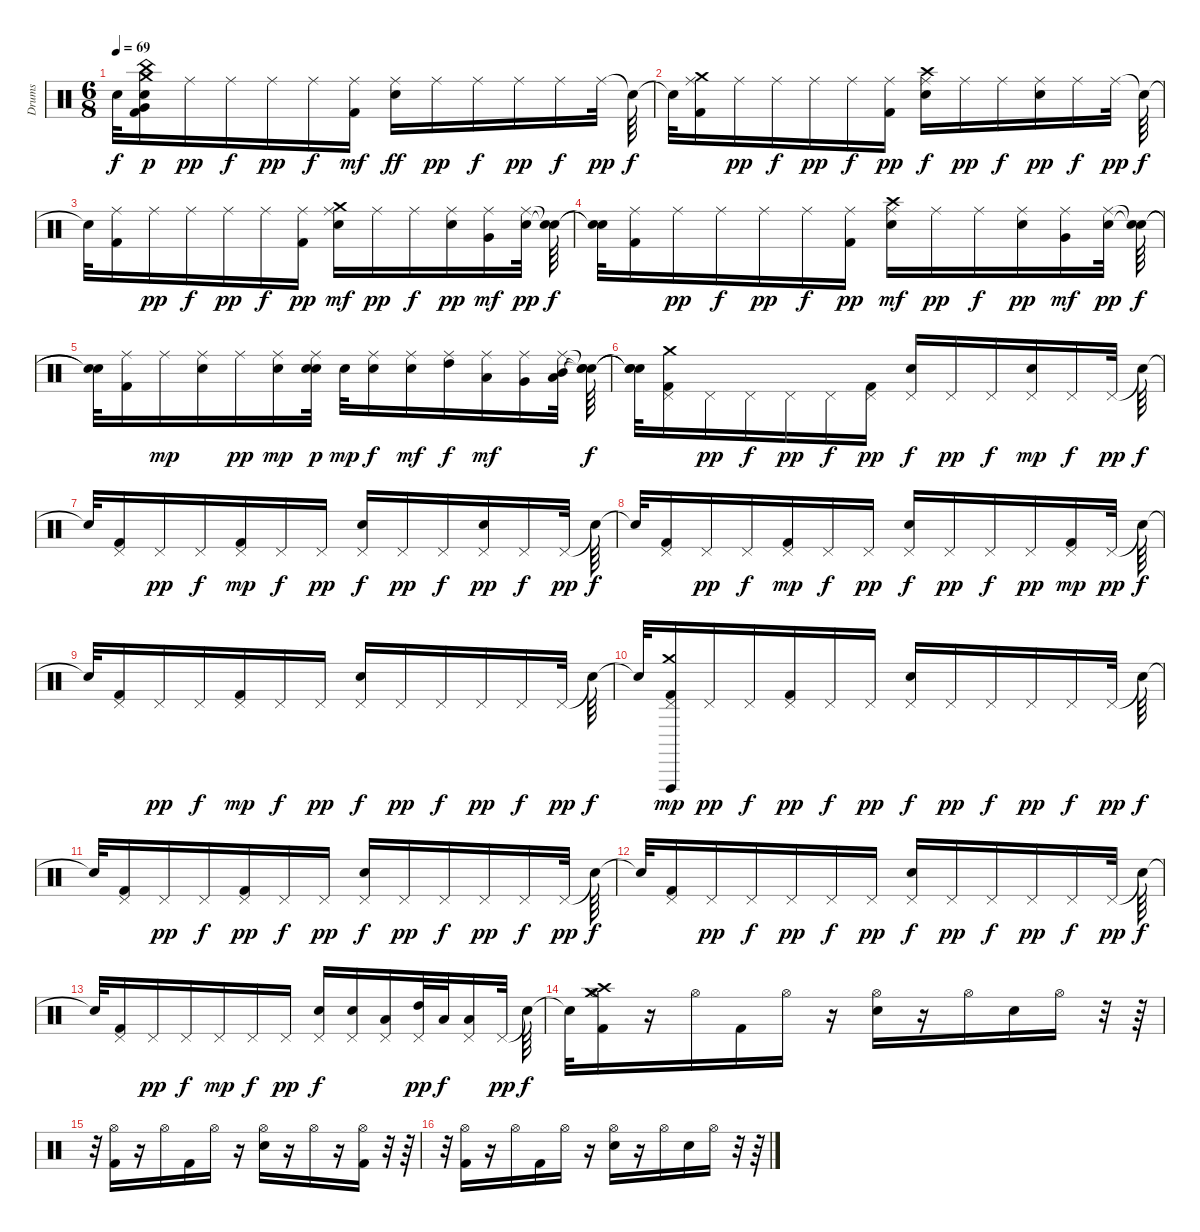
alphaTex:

\track ("Drums" "Drums") {instrument percussion}
\staff {score}
\articulation defaults
\ts (6 8)
\tempo 69
\clef neutral
\ks c "Snare (hit)"{t}.32{dy f}
("China (hit)" "Crash medium (hit)" "Kick (hit) 2" "Snare (hit) 2" "Very Low Tom (hit)").16{dy p} "Ride (middle)".16{dy pp} "Ride (middle)".16{dy f} "Ride (middle)".16{dy pp} "Ride (middle)".16{dy f} ("Kick (hit) 2" "Ride (middle)").16{dy mf} ("Snare (hit) 2" "Ride (middle)").16{dy ff} "Ride (middle)".16{dy pp} "Ride (middle)".16{dy f} "Ride (middle)".16{dy pp} "Ride (middle)".16{dy f} "Ride (middle)".32{dy pp} "Snare (hit)"{t}.64{dy f} |
"Snare (hit)"{t}.32 ("Crash medium (hit)" "Kick (hit) 2" "Ride (middle)").16 "Ride (middle)".16{dy pp} "Ride (middle)".16{dy f} "Ride (middle)".16{dy pp} "Ride (middle)".16{dy f} ("Kick (hit) 2" "Ride (middle)").16{dy pp} ("Snare (hit) 2" "Crash high (hit)" "Ride (middle)").16{dy f} "Ride (middle)".16{dy pp} "Ride (middle)".16{dy f} ("Snare (hit) 2" "Ride (middle)").16{dy pp} "Ride (middle)".16{dy f} "Ride (middle)".32{dy pp} "Snare (hit)"{t}.64{dy f} |
"Snare (hit)"{t}.32 ("Kick (hit) 2" "Ride (middle)").16 "Ride (middle)".16{dy pp} "Ride (middle)".16{dy f} "Ride (middle)".16{dy pp} "Ride (middle)".16{dy f} ("Kick (hit) 2" "Ride (middle)").16{dy pp} ("Snare (hit) 2" "Crash medium (hit)" "Ride (middle)").16{dy mf} "Ride (middle)".16{dy pp} "Ride (middle)".16{dy f} ("Snare (hit) 2" "Ride (middle)").16{dy pp} ("Very Low Tom (hit)" "Ride (middle)").16{dy mf} ("Snare (hit) 2" "Ride (middle)").32{dy pp} ("Snare (hit)"{t} "Snare (hit)"{t}).64{dy f} |
("Snare (hit)"{t} "Snare (hit)"{t}).32 ("Kick (hit) 2" "Ride (middle)").16 "Ride (middle)".16{dy pp} "Ride (middle)".16{dy f} "Ride (middle)".16{dy pp} "Ride (middle)".16{dy f} ("Kick (hit) 2" "Ride (middle)").16{dy pp} ("Crash high (hit)" "Snare (hit) 2" "Ride (middle)").16{dy mf} "Ride (middle)".16{dy pp} "Ride (middle)".16{dy f} ("Snare (hit) 2" "Ride (middle)").16{dy pp} ("Very Low Tom (hit)" "Ride (middle)").16{dy mf} ("Snare (hit) 2" "Ride (middle)").32{dy pp} ("Snare (hit)"{t} "Snare (hit)"{t}).64{dy f} |
("Snare (hit)"{t} "Snare (hit)"{t}).32 ("Kick (hit) 2" "Ride (middle)").16 "Ride (middle)".16{dy mp} ("Snare (hit) 2" "Ride (middle)").16 "Ride (middle)".16{dy pp} ("Ride (middle)" "Snare (hit) 2").16{dy mp} ("Ride (middle)" "Snare (hit) 2" "Snare (hit) 2").32{dy p} "Snare (hit) 2".32{dy mp} ("Ride (middle)" "Snare (hit) 2").16{dy f} ("Ride (middle)" "Snare (hit) 2").16{dy mf} ("Ride (middle)" "High Tom (hit)").16{dy f} ("Ride (middle)" "Low Tom (hit)").16{dy mf} ("Ride (middle)" "Very Low Tom (hit)").16 ("Ride (middle)" "Mid Tom (hit)" "Low Floor Tom (hit)").32 ("Snare (hit)"{t} "Snare (hit)"{t} "Snare (hit)"{t}).64{dy f} |
("Snare (hit)"{t} "Snare (hit)"{t} "Snare (hit)"{t}).32 ("Pedal Hi-Hat (hit)" "Kick (hit) 2" "Crash medium (hit)").16 "Pedal Hi-Hat (hit)".16{dy pp} "Pedal Hi-Hat (hit)".16{dy f} "Pedal Hi-Hat (hit)".16{dy pp} "Pedal Hi-Hat (hit)".16{dy f} ("Kick (hit) 2" "Pedal Hi-Hat (hit)").16{dy pp} ("Snare (hit) 2" "Pedal Hi-Hat (hit)").16{dy f} "Pedal Hi-Hat (hit)".16{dy pp} "Pedal Hi-Hat (hit)".16{dy f} ("Pedal Hi-Hat (hit)" "Snare (hit) 2").16{dy mp} "Pedal Hi-Hat (hit)".16{dy f} "Pedal Hi-Hat (hit)".32{dy pp} "Snare (hit)"{t}.64{dy f} |
"Snare (hit)"{t}.32 ("Kick (hit) 2" "Pedal Hi-Hat (hit)").16 "Pedal Hi-Hat (hit)".16{dy pp} "Pedal Hi-Hat (hit)".16{dy f} ("Pedal Hi-Hat (hit)" "Kick (hit) 2").16{dy mp} "Pedal Hi-Hat (hit)".16{dy f} "Pedal Hi-Hat (hit)".16{dy pp} ("Snare (hit) 2" "Pedal Hi-Hat (hit)").16{dy f} "Pedal Hi-Hat (hit)".16{dy pp} "Pedal Hi-Hat (hit)".16{dy f} ("Snare (hit) 2" "Pedal Hi-Hat (hit)").16{dy pp} "Pedal Hi-Hat (hit)".16{dy f} "Pedal Hi-Hat (hit)".32{dy pp} "Snare (hit)"{t}.64{dy f} |
"Snare (hit)"{t}.32 ("Pedal Hi-Hat (hit)" "Kick (hit) 2").16 "Pedal Hi-Hat (hit)".16{dy pp} "Pedal Hi-Hat (hit)".16{dy f} ("Pedal Hi-Hat (hit)" "Kick (hit) 2").16{dy mp} "Pedal Hi-Hat (hit)".16{dy f} "Pedal Hi-Hat (hit)".16{dy pp} ("Pedal Hi-Hat (hit)" "Snare (hit) 2").16{dy f} "Pedal Hi-Hat (hit)".16{dy pp} "Pedal Hi-Hat (hit)".16{dy f} "Pedal Hi-Hat (hit)".16{dy pp} ("Pedal Hi-Hat (hit)" "Kick (hit) 2").16{dy mp} "Pedal Hi-Hat (hit)".32{dy pp} "Snare (hit)"{t}.64{dy f} |
"Snare (hit)"{t}.32 ("Kick (hit) 2" "Pedal Hi-Hat (hit)").16 "Pedal Hi-Hat (hit)".16{dy pp} "Pedal Hi-Hat (hit)".16{dy f} ("Pedal Hi-Hat (hit)" "Kick (hit) 2").16{dy mp} "Pedal Hi-Hat (hit)".16{dy f} "Pedal Hi-Hat (hit)".16{dy pp} ("Snare (hit) 2" "Pedal Hi-Hat (hit)").16{dy f} "Pedal Hi-Hat (hit)".16{dy pp} "Pedal Hi-Hat (hit)".16{dy f} "Pedal Hi-Hat (hit)".16{dy pp} "Pedal Hi-Hat (hit)".16{dy f} "Pedal Hi-Hat (hit)".32{dy pp} "Snare (hit)"{t}.64{dy f} |
"Snare (hit)"{t}.32 ("Vibraslap (hit)" "Crash medium (hit)" "Pedal Hi-Hat (hit)" "Kick (hit) 2").16{dy mp} "Pedal Hi-Hat (hit)".16{dy pp} "Pedal Hi-Hat (hit)".16{dy f} ("Kick (hit) 2" "Pedal Hi-Hat (hit)").16{dy pp} "Pedal Hi-Hat (hit)".16{dy f} "Pedal Hi-Hat (hit)".16{dy pp} ("Snare (hit) 2" "Pedal Hi-Hat (hit)").16{dy f} "Pedal Hi-Hat (hit)".16{dy pp} "Pedal Hi-Hat (hit)".16{dy f} "Pedal Hi-Hat (hit)".16{dy pp} "Pedal Hi-Hat (hit)".16{dy f} "Pedal Hi-Hat (hit)".32{dy pp} "Snare (hit)"{t}.64{dy f} |
"Snare (hit)"{t}.32 ("Kick (hit) 2" "Pedal Hi-Hat (hit)").16 "Pedal Hi-Hat (hit)".16{dy pp} "Pedal Hi-Hat (hit)".16{dy f} ("Kick (hit) 2" "Pedal Hi-Hat (hit)").16{dy pp} "Pedal Hi-Hat (hit)".16{dy f} "Pedal Hi-Hat (hit)".16{dy pp} ("Snare (hit) 2" "Pedal Hi-Hat (hit)").16{dy f} "Pedal Hi-Hat (hit)".16{dy pp} "Pedal Hi-Hat (hit)".16{dy f} "Pedal Hi-Hat (hit)".16{dy pp} "Pedal Hi-Hat (hit)".16{dy f} "Pedal Hi-Hat (hit)".32{dy pp} "Snare (hit)"{t}.64{dy f} |
"Snare (hit)"{t}.32 ("Pedal Hi-Hat (hit)" "Kick (hit) 2").16 "Pedal Hi-Hat (hit)".16{dy pp} "Pedal Hi-Hat (hit)".16{dy f} "Pedal Hi-Hat (hit)".16{dy pp} "Pedal Hi-Hat (hit)".16{dy f} "Pedal Hi-Hat (hit)".16{dy pp} ("Pedal Hi-Hat (hit)" "Snare (hit) 2").16{dy f} "Pedal Hi-Hat (hit)".16{dy pp} "Pedal Hi-Hat (hit)".16{dy f} "Pedal Hi-Hat (hit)".16{dy pp} "Pedal Hi-Hat (hit)".16{dy f} "Pedal Hi-Hat (hit)".32{dy pp} "Snare (hit)"{t}.64{dy f} |
"Snare (hit)"{t}.32 ("Kick (hit) 2" "Pedal Hi-Hat (hit)").16 "Pedal Hi-Hat (hit)".16{dy pp} "Pedal Hi-Hat (hit)".16{dy f} "Pedal Hi-Hat (hit)".16{dy mp} "Pedal Hi-Hat (hit)".16{dy f} "Pedal Hi-Hat (hit)".16{dy pp} ("Pedal Hi-Hat (hit)" "Snare (hit) 2").16{dy f} ("Pedal Hi-Hat (hit)" "Snare (hit) 2").16 ("Pedal Hi-Hat (hit)" "Low Tom (hit)").16 ("Pedal Hi-Hat (hit)" "High Tom (hit)").32{dy pp} "Low Tom (hit)".32{dy f} ("Pedal Hi-Hat (hit)" "Low Floor Tom (hit)").16 "Pedal Hi-Hat (hit)".32{dy pp} "Snare (hit)"{t}.64{dy f} |
"Snare (hit)"{t}.32 ("Crash high (hit)" "Crash medium (hit)" "Kick (hit) 2" "Hi-Hat (open)").16 r.16 "Hi-Hat (open)".16 "Kick (hit) 2".16 "Hi-Hat (open)".16 r.16 ("Snare (hit) 2" "Hi-Hat (open)").16 r.16 "Hi-Hat (open)".16 "Snare (hit) 2".16 "Hi-Hat (open)".16 r.32 r.64 |
r.32 ("Kick (hit) 2" "Hi-Hat (open)").16 r.16 "Hi-Hat (open)".16 "Kick (hit) 2".16 "Hi-Hat (open)".16 r.16 ("Snare (hit) 2" "Hi-Hat (open)").16 r.16 "Hi-Hat (open)".16 r.16 ("Kick (hit) 2" "Hi-Hat (open)").16 r.32 r.64 |
r.32 ("Kick (hit) 2" "Hi-Hat (open)").16 r.16 "Hi-Hat (open)".16 "Kick (hit) 2".16 "Hi-Hat (open)".16 r.16 ("Snare (hit) 2" "Hi-Hat (open)").16 r.16 "Hi-Hat (open)".16 "Snare (hit) 2".16 "Hi-Hat (open)".16 r.32 r.64
